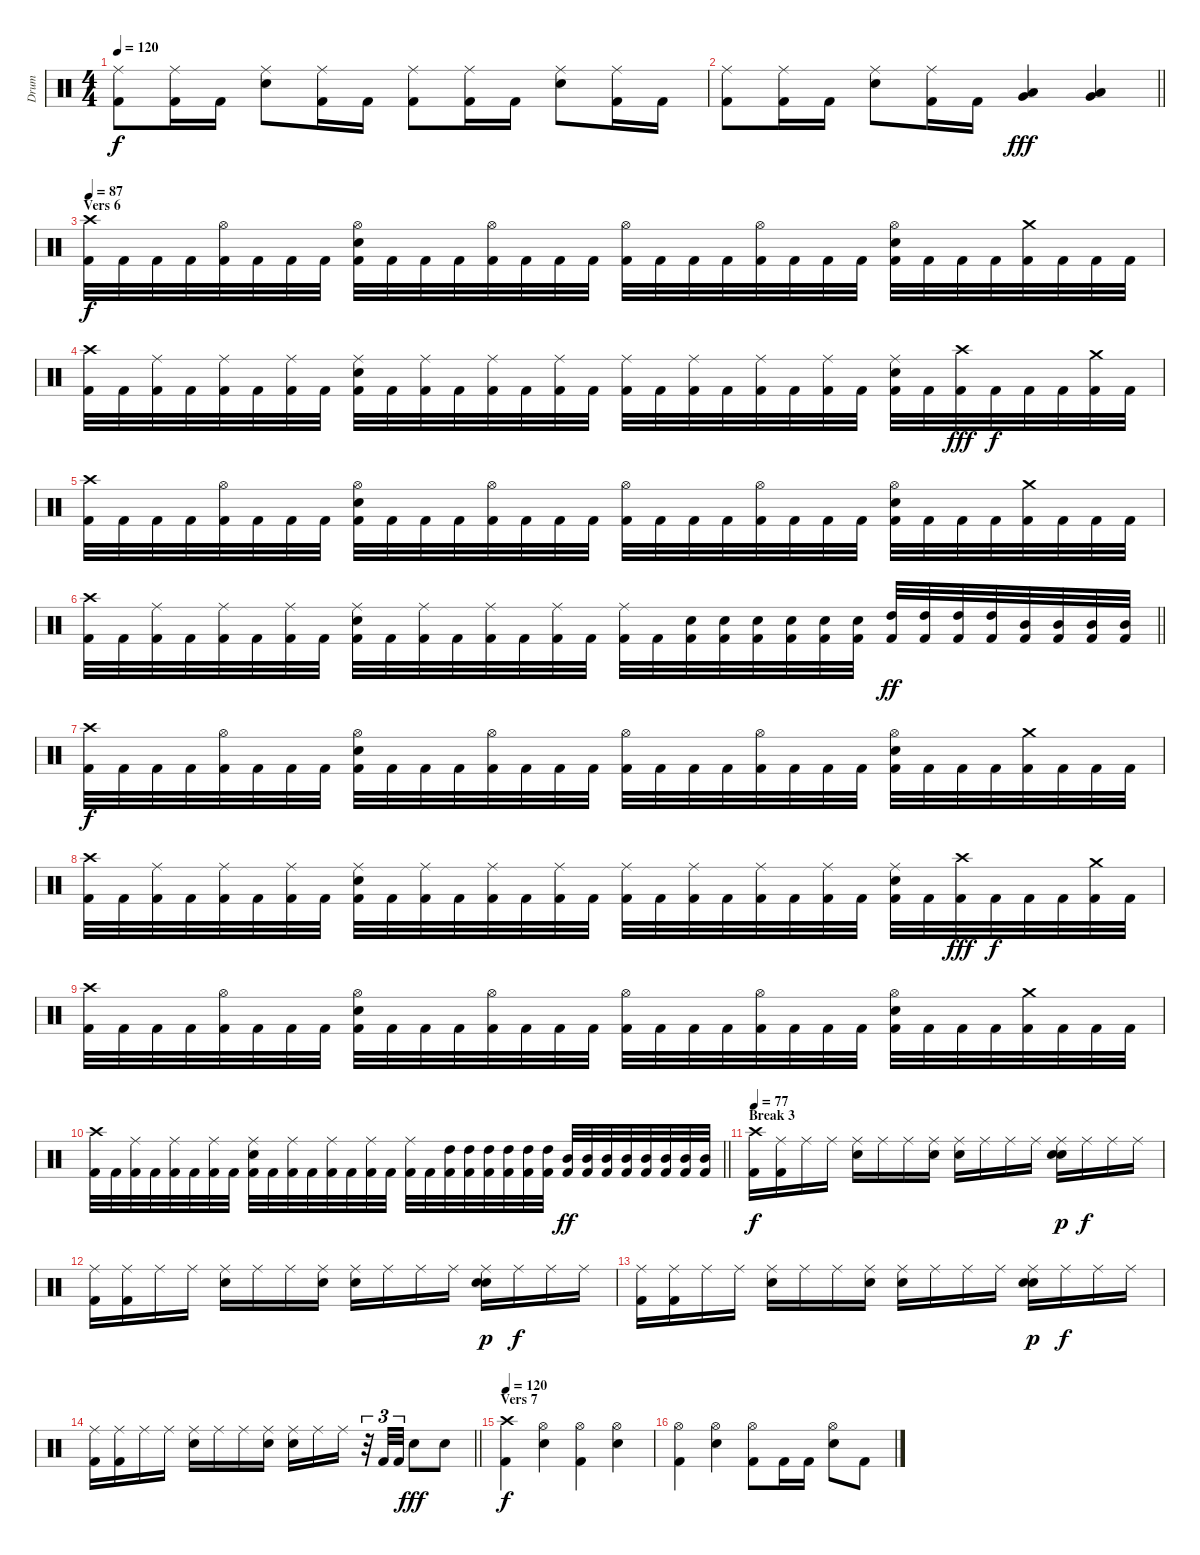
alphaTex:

\track ("Drum" "Drum") {instrument percussion}
\staff {score}
\articulation defaults
\ts (4 4)
\tempo 120
\clef neutral
\ks c
("Ride (middle)" "Kick (hit) 2").8{dy f} ("Ride (middle)" "Kick (hit) 2").16 "Kick (hit) 2".16 ("Ride (middle)" "Electric Snare (hit)").8 ("Ride (middle)" "Kick (hit) 2").16 "Kick (hit) 2".16 ("Ride (middle)" "Kick (hit) 2").8 ("Ride (middle)" "Kick (hit) 2").16 "Kick (hit) 2".16 ("Ride (middle)" "Electric Snare (hit)").8 ("Ride (middle)" "Kick (hit) 2").16 "Kick (hit) 2".16 |
\barLineRight lightlight
("Ride (middle)" "Kick (hit) 2").8 ("Ride (middle)" "Kick (hit) 2").16 "Kick (hit) 2".16 ("Ride (middle)" "Electric Snare (hit)").8 ("Ride (middle)" "Kick (hit) 2").16 "Kick (hit) 2".16 ("Very Low Tom (hit)" "Low Floor Tom (hit)").4{dy fff} ("Very Low Tom (hit)" "Low Floor Tom (hit)").4 |
\section ("" "Vers 6")
\tempo 87
("Crash high (hit)" "Kick (hit) 2").32{dy f} "Kick (hit) 2".32 "Kick (hit) 2".32 "Kick (hit) 2".32 ("Hi-Hat (open)" "Kick (hit) 2").32 "Kick (hit) 2".32 "Kick (hit) 2".32 "Kick (hit) 2".32 ("Hi-Hat (open)" "Electric Snare (hit)" "Kick (hit) 2").32 "Kick (hit) 2".32 "Kick (hit) 2".32 "Kick (hit) 2".32 ("Hi-Hat (open)" "Kick (hit) 2").32 "Kick (hit) 2".32 "Kick (hit) 2".32 "Kick (hit) 2".32 ("Hi-Hat (open)" "Kick (hit) 2").32 "Kick (hit) 2".32 "Kick (hit) 2".32 "Kick (hit) 2".32 ("Hi-Hat (open)" "Kick (hit) 2").32 "Kick (hit) 2".32 "Kick (hit) 2".32 "Kick (hit) 2".32 ("Hi-Hat (open)" "Electric Snare (hit)" "Kick (hit) 2").32 "Kick (hit) 2".32 "Kick (hit) 2".32 "Kick (hit) 2".32 ("Crash medium (hit)" "Kick (hit) 2").32 "Kick (hit) 2".32 "Kick (hit) 2".32 "Kick (hit) 2".32 |
("Crash high (hit)" "Kick (hit) 2").32 "Kick (hit) 2".32 ("Ride (middle)" "Kick (hit) 2").32 "Kick (hit) 2".32 ("Ride (middle)" "Kick (hit) 2").32 "Kick (hit) 2".32 ("Ride (middle)" "Kick (hit) 2").32 "Kick (hit) 2".32 ("Ride (middle)" "Electric Snare (hit)" "Kick (hit) 2").32 "Kick (hit) 2".32 ("Ride (middle)" "Kick (hit) 2").32 "Kick (hit) 2".32 ("Ride (middle)" "Kick (hit) 2").32 "Kick (hit) 2".32 ("Ride (middle)" "Kick (hit) 2").32 "Kick (hit) 2".32 ("Ride (middle)" "Kick (hit) 2").32 "Kick (hit) 2".32 ("Ride (middle)" "Kick (hit) 2").32 "Kick (hit) 2".32 ("Ride (middle)" "Kick (hit) 2").32 "Kick (hit) 2".32 ("Ride (middle)" "Kick (hit) 2").32 "Kick (hit) 2".32 ("Ride (middle)" "Electric Snare (hit)" "Kick (hit) 2").32 "Kick (hit) 2".32 ("Crash high (hit)" "Kick (hit) 2").32{dy fff} "Kick (hit) 2".32{dy f} "Kick (hit) 2".32 "Kick (hit) 2".32 ("Crash medium (hit)" "Kick (hit) 2").32 "Kick (hit) 2".32 |
("Crash high (hit)" "Kick (hit) 2").32 "Kick (hit) 2".32 "Kick (hit) 2".32 "Kick (hit) 2".32 ("Hi-Hat (open)" "Kick (hit) 2").32 "Kick (hit) 2".32 "Kick (hit) 2".32 "Kick (hit) 2".32 ("Hi-Hat (open)" "Electric Snare (hit)" "Kick (hit) 2").32 "Kick (hit) 2".32 "Kick (hit) 2".32 "Kick (hit) 2".32 ("Hi-Hat (open)" "Kick (hit) 2").32 "Kick (hit) 2".32 "Kick (hit) 2".32 "Kick (hit) 2".32 ("Hi-Hat (open)" "Kick (hit) 2").32 "Kick (hit) 2".32 "Kick (hit) 2".32 "Kick (hit) 2".32 ("Hi-Hat (open)" "Kick (hit) 2").32 "Kick (hit) 2".32 "Kick (hit) 2".32 "Kick (hit) 2".32 ("Hi-Hat (open)" "Electric Snare (hit)" "Kick (hit) 2").32 "Kick (hit) 2".32 "Kick (hit) 2".32 "Kick (hit) 2".32 ("Crash medium (hit)" "Kick (hit) 2").32 "Kick (hit) 2".32 "Kick (hit) 2".32 "Kick (hit) 2".32 |
\barLineRight lightlight
("Crash high (hit)" "Kick (hit) 2").32 "Kick (hit) 2".32 ("Ride (middle)" "Kick (hit) 2").32 "Kick (hit) 2".32 ("Ride (middle)" "Kick (hit) 2").32 "Kick (hit) 2".32 ("Ride (middle)" "Kick (hit) 2").32 "Kick (hit) 2".32 ("Ride (middle)" "Electric Snare (hit)" "Kick (hit) 2").32 "Kick (hit) 2".32 ("Ride (middle)" "Kick (hit) 2").32 "Kick (hit) 2".32 ("Ride (middle)" "Kick (hit) 2").32 "Kick (hit) 2".32 ("Ride (middle)" "Kick (hit) 2").32 "Kick (hit) 2".32 ("Ride (middle)" "Kick (hit) 2").32 "Kick (hit) 2".32 ("Electric Snare (hit)" "Kick (hit) 2").32 ("Electric Snare (hit)" "Kick (hit) 2").32 ("Electric Snare (hit)" "Kick (hit) 2").32 ("Electric Snare (hit)" "Kick (hit) 2").32 ("Electric Snare (hit)" "Kick (hit) 2").32 ("Electric Snare (hit)" "Kick (hit) 2").32 ("High Tom (hit)" "Kick (hit) 2").32{dy ff} ("High Tom (hit)" "Kick (hit) 2").32 ("High Tom (hit)" "Kick (hit) 2").32 ("High Tom (hit)" "Kick (hit) 2").32 ("Mid Tom (hit)" "Kick (hit) 2").32 ("Mid Tom (hit)" "Kick (hit) 2").32 ("Mid Tom (hit)" "Kick (hit) 2").32 ("Mid Tom (hit)" "Kick (hit) 2").32 |
("Crash high (hit)" "Kick (hit) 2").32{dy f} "Kick (hit) 2".32 "Kick (hit) 2".32 "Kick (hit) 2".32 ("Hi-Hat (open)" "Kick (hit) 2").32 "Kick (hit) 2".32 "Kick (hit) 2".32 "Kick (hit) 2".32 ("Hi-Hat (open)" "Electric Snare (hit)" "Kick (hit) 2").32 "Kick (hit) 2".32 "Kick (hit) 2".32 "Kick (hit) 2".32 ("Hi-Hat (open)" "Kick (hit) 2").32 "Kick (hit) 2".32 "Kick (hit) 2".32 "Kick (hit) 2".32 ("Hi-Hat (open)" "Kick (hit) 2").32 "Kick (hit) 2".32 "Kick (hit) 2".32 "Kick (hit) 2".32 ("Hi-Hat (open)" "Kick (hit) 2").32 "Kick (hit) 2".32 "Kick (hit) 2".32 "Kick (hit) 2".32 ("Hi-Hat (open)" "Electric Snare (hit)" "Kick (hit) 2").32 "Kick (hit) 2".32 "Kick (hit) 2".32 "Kick (hit) 2".32 ("Crash medium (hit)" "Kick (hit) 2").32 "Kick (hit) 2".32 "Kick (hit) 2".32 "Kick (hit) 2".32 |
("Crash high (hit)" "Kick (hit) 2").32 "Kick (hit) 2".32 ("Ride (middle)" "Kick (hit) 2").32 "Kick (hit) 2".32 ("Ride (middle)" "Kick (hit) 2").32 "Kick (hit) 2".32 ("Ride (middle)" "Kick (hit) 2").32 "Kick (hit) 2".32 ("Ride (middle)" "Electric Snare (hit)" "Kick (hit) 2").32 "Kick (hit) 2".32 ("Ride (middle)" "Kick (hit) 2").32 "Kick (hit) 2".32 ("Ride (middle)" "Kick (hit) 2").32 "Kick (hit) 2".32 ("Ride (middle)" "Kick (hit) 2").32 "Kick (hit) 2".32 ("Ride (middle)" "Kick (hit) 2").32 "Kick (hit) 2".32 ("Ride (middle)" "Kick (hit) 2").32 "Kick (hit) 2".32 ("Ride (middle)" "Kick (hit) 2").32 "Kick (hit) 2".32 ("Ride (middle)" "Kick (hit) 2").32 "Kick (hit) 2".32 ("Ride (middle)" "Electric Snare (hit)" "Kick (hit) 2").32 "Kick (hit) 2".32 ("Crash high (hit)" "Kick (hit) 2").32{dy fff} "Kick (hit) 2".32{dy f} "Kick (hit) 2".32 "Kick (hit) 2".32 ("Crash medium (hit)" "Kick (hit) 2").32 "Kick (hit) 2".32 |
("Crash high (hit)" "Kick (hit) 2").32 "Kick (hit) 2".32 "Kick (hit) 2".32 "Kick (hit) 2".32 ("Hi-Hat (open)" "Kick (hit) 2").32 "Kick (hit) 2".32 "Kick (hit) 2".32 "Kick (hit) 2".32 ("Hi-Hat (open)" "Electric Snare (hit)" "Kick (hit) 2").32 "Kick (hit) 2".32 "Kick (hit) 2".32 "Kick (hit) 2".32 ("Hi-Hat (open)" "Kick (hit) 2").32 "Kick (hit) 2".32 "Kick (hit) 2".32 "Kick (hit) 2".32 ("Hi-Hat (open)" "Kick (hit) 2").32 "Kick (hit) 2".32 "Kick (hit) 2".32 "Kick (hit) 2".32 ("Hi-Hat (open)" "Kick (hit) 2").32 "Kick (hit) 2".32 "Kick (hit) 2".32 "Kick (hit) 2".32 ("Hi-Hat (open)" "Electric Snare (hit)" "Kick (hit) 2").32 "Kick (hit) 2".32 "Kick (hit) 2".32 "Kick (hit) 2".32 ("Crash medium (hit)" "Kick (hit) 2").32 "Kick (hit) 2".32 "Kick (hit) 2".32 "Kick (hit) 2".32 |
\barLineRight lightlight
("Crash high (hit)" "Kick (hit) 2").32 "Kick (hit) 2".32 ("Ride (middle)" "Kick (hit) 2").32 "Kick (hit) 2".32 ("Ride (middle)" "Kick (hit) 2").32 "Kick (hit) 2".32 ("Ride (middle)" "Kick (hit) 2").32 "Kick (hit) 2".32 ("Ride (middle)" "Electric Snare (hit)" "Kick (hit) 2").32 "Kick (hit) 2".32 ("Ride (middle)" "Kick (hit) 2").32 "Kick (hit) 2".32 ("Ride (middle)" "Kick (hit) 2").32 "Kick (hit) 2".32 ("Ride (middle)" "Kick (hit) 2").32 "Kick (hit) 2".32 ("Ride (middle)" "Kick (hit) 2").32 "Kick (hit) 2".32 ("High Tom (hit)" "Kick (hit) 2").32 ("High Tom (hit)" "Kick (hit) 2").32 ("High Tom (hit)" "Kick (hit) 2").32 ("High Tom (hit)" "Kick (hit) 2").32 ("High Tom (hit)" "Kick (hit) 2").32 ("High Tom (hit)" "Kick (hit) 2").32 ("Mid Tom (hit)" "Kick (hit) 2").32{dy ff} ("Mid Tom (hit)" "Kick (hit) 2").32 ("Mid Tom (hit)" "Kick (hit) 2").32 ("Mid Tom (hit)" "Kick (hit) 2").32 ("Mid Tom (hit)" "Kick (hit) 2").32 ("Mid Tom (hit)" "Kick (hit) 2").32 ("Mid Tom (hit)" "Kick (hit) 2").32 ("Mid Tom (hit)" "Kick (hit) 2").32 |
\section ("" "Break 3")
\tempo 77
("Crash high (hit)" "Kick (hit) 2").16{dy f} ("Ride (middle)" "Kick (hit) 2").16 "Ride (middle)".16 "Ride (middle)".16 ("Ride (middle)" "Electric Snare (hit)").16 "Ride (middle)".16 "Ride (middle)".16 ("Ride (middle)" "Electric Snare (hit)").16 ("Ride (middle)" "Electric Snare (hit)").16 "Ride (middle)".16 "Ride (middle)".16 "Ride (middle)".16 ("Ride (middle)" "Electric Snare (hit)" "Snare (hit) 2").16{dy p} "Ride (middle)".16{dy f} "Ride (middle)".16 "Ride (middle)".16 |
("Ride (middle)" "Kick (hit) 2").16 ("Ride (middle)" "Kick (hit) 2").16 "Ride (middle)".16 "Ride (middle)".16 ("Ride (middle)" "Electric Snare (hit)").16 "Ride (middle)".16 "Ride (middle)".16 ("Ride (middle)" "Electric Snare (hit)").16 ("Ride (middle)" "Electric Snare (hit)").16 "Ride (middle)".16 "Ride (middle)".16 "Ride (middle)".16 ("Ride (middle)" "Electric Snare (hit)" "Snare (hit) 2").16{dy p} "Ride (middle)".16{dy f} "Ride (middle)".16 "Ride (middle)".16 |
("Ride (middle)" "Kick (hit) 2").16 ("Ride (middle)" "Kick (hit) 2").16 "Ride (middle)".16 "Ride (middle)".16 ("Ride (middle)" "Electric Snare (hit)").16 "Ride (middle)".16 "Ride (middle)".16 ("Ride (middle)" "Electric Snare (hit)").16 ("Ride (middle)" "Electric Snare (hit)").16 "Ride (middle)".16 "Ride (middle)".16 "Ride (middle)".16 ("Ride (middle)" "Electric Snare (hit)" "Snare (hit) 2").16{dy p} "Ride (middle)".16{dy f} "Ride (middle)".16 "Ride (middle)".16 |
\barLineRight lightlight
("Ride (middle)" "Kick (hit) 2").16 ("Ride (middle)" "Kick (hit) 2").16 "Ride (middle)".16 "Ride (middle)".16 ("Ride (middle)" "Electric Snare (hit)").16 "Ride (middle)".16 "Ride (middle)".16 ("Ride (middle)" "Electric Snare (hit)").16 ("Ride (middle)" "Electric Snare (hit)").16 "Ride (middle)".16 "Ride (middle)".16 r.32{tu (3 2)} "Kick (hit) 2".32{tu (3 2)} "Kick (hit) 2".32{tu (3 2)} "Electric Snare (hit)".8{dy fff} "Electric Snare (hit)".8 |
\section ("" "Vers 7")
\tempo 120
("Crash high (hit)" "Kick (hit) 2").4{dy f} ("Hi-Hat (open)" "Electric Snare (hit)").4 ("Hi-Hat (open)" "Kick (hit) 2").4 ("Hi-Hat (open)" "Electric Snare (hit)").4 |
("Hi-Hat (open)" "Kick (hit) 2").4 ("Hi-Hat (open)" "Electric Snare (hit)").4 ("Hi-Hat (open)" "Kick (hit) 2").8 "Kick (hit) 2".16 "Kick (hit) 2".16 ("Hi-Hat (open)" "Electric Snare (hit)").8 "Kick (hit) 2".8
